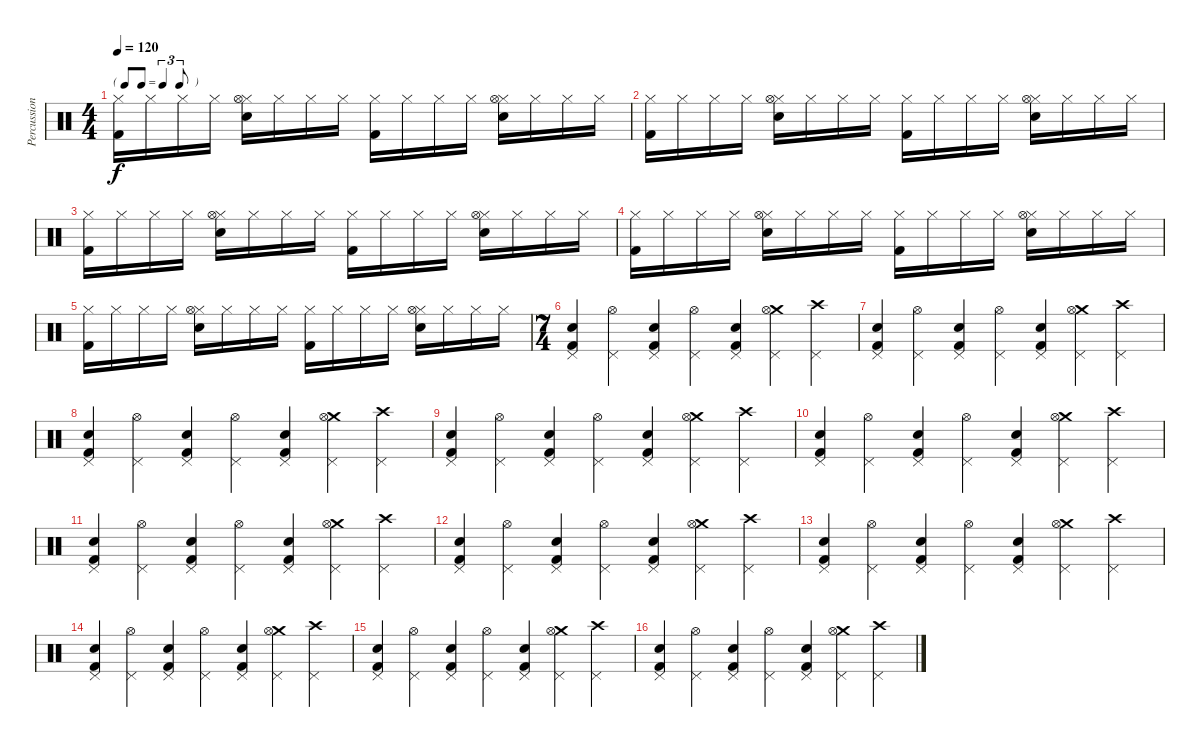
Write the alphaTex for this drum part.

\track ("Percussions" "Percussion") {instrument percussion}
\staff {score}
\articulation defaults
\ts (4 4)
\tf triplet8th
\tempo 120
\clef neutral
\ks c
("Hi-Hat (closed)" "Kick (hit) 2").16{dy f} "Hi-Hat (closed)".16 "Hi-Hat (closed)".16 "Hi-Hat (closed)".16 ("Snare (hit) 2" "Hi-Hat (closed)" "Hi-Hat (open)").16 "Hi-Hat (closed)".16 "Hi-Hat (closed)".16 "Hi-Hat (closed)".16 ("Hi-Hat (closed)" "Kick (hit) 2").16 "Hi-Hat (closed)".16 "Hi-Hat (closed)".16 "Hi-Hat (closed)".16 ("Snare (hit) 2" "Hi-Hat (closed)" "Hi-Hat (open)").16 "Hi-Hat (closed)".16 "Hi-Hat (closed)".16 "Hi-Hat (closed)".16 |
("Hi-Hat (closed)" "Kick (hit) 2").16 "Hi-Hat (closed)".16 "Hi-Hat (closed)".16 "Hi-Hat (closed)".16 ("Snare (hit) 2" "Hi-Hat (closed)" "Hi-Hat (open)").16 "Hi-Hat (closed)".16 "Hi-Hat (closed)".16 "Hi-Hat (closed)".16 ("Hi-Hat (closed)" "Kick (hit) 2").16 "Hi-Hat (closed)".16 "Hi-Hat (closed)".16 "Hi-Hat (closed)".16 ("Snare (hit) 2" "Hi-Hat (closed)" "Hi-Hat (open)").16 "Hi-Hat (closed)".16 "Hi-Hat (closed)".16 "Hi-Hat (closed)".16 |
("Hi-Hat (closed)" "Kick (hit) 2").16 "Hi-Hat (closed)".16 "Hi-Hat (closed)".16 "Hi-Hat (closed)".16 ("Snare (hit) 2" "Hi-Hat (closed)" "Hi-Hat (open)").16 "Hi-Hat (closed)".16 "Hi-Hat (closed)".16 "Hi-Hat (closed)".16 ("Hi-Hat (closed)" "Kick (hit) 2").16 "Hi-Hat (closed)".16 "Hi-Hat (closed)".16 "Hi-Hat (closed)".16 ("Snare (hit) 2" "Hi-Hat (closed)" "Hi-Hat (open)").16 "Hi-Hat (closed)".16 "Hi-Hat (closed)".16 "Hi-Hat (closed)".16 |
("Hi-Hat (closed)" "Kick (hit) 2").16 "Hi-Hat (closed)".16 "Hi-Hat (closed)".16 "Hi-Hat (closed)".16 ("Snare (hit) 2" "Hi-Hat (closed)" "Hi-Hat (open)").16 "Hi-Hat (closed)".16 "Hi-Hat (closed)".16 "Hi-Hat (closed)".16 ("Hi-Hat (closed)" "Kick (hit) 2").16 "Hi-Hat (closed)".16 "Hi-Hat (closed)".16 "Hi-Hat (closed)".16 ("Snare (hit) 2" "Hi-Hat (closed)" "Hi-Hat (open)").16 "Hi-Hat (closed)".16 "Hi-Hat (closed)".16 "Hi-Hat (closed)".16 |
("Hi-Hat (closed)" "Kick (hit) 2").16 "Hi-Hat (closed)".16 "Hi-Hat (closed)".16 "Hi-Hat (closed)".16 ("Snare (hit) 2" "Hi-Hat (closed)" "Hi-Hat (open)").16 "Hi-Hat (closed)".16 "Hi-Hat (closed)".16 "Hi-Hat (closed)".16 ("Hi-Hat (closed)" "Kick (hit) 2").16 "Hi-Hat (closed)".16 "Hi-Hat (closed)".16 "Hi-Hat (closed)".16 ("Snare (hit) 2" "Hi-Hat (closed)" "Hi-Hat (open)").16 "Hi-Hat (closed)".16 "Hi-Hat (closed)".16 "Hi-Hat (closed)".16 |
\ts (7 4)
("Kick (hit) 2" "Snare (hit) 2" "Pedal Hi-Hat (hit)").4 ("Hi-Hat (open)" "Pedal Hi-Hat (hit)").4 ("Kick (hit) 2" "Snare (hit) 2" "Pedal Hi-Hat (hit)").4 ("Hi-Hat (open)" "Pedal Hi-Hat (hit)").4 ("Kick (hit) 2" "Snare (hit) 2" "Pedal Hi-Hat (hit)").4 ("Crash medium (hit)" "Hi-Hat (open)" "Pedal Hi-Hat (hit)").4 ("Crash high (hit)" "Pedal Hi-Hat (hit)").4 |
("Kick (hit) 2" "Snare (hit) 2" "Pedal Hi-Hat (hit)").4 ("Hi-Hat (open)" "Pedal Hi-Hat (hit)").4 ("Kick (hit) 2" "Snare (hit) 2" "Pedal Hi-Hat (hit)").4 ("Hi-Hat (open)" "Pedal Hi-Hat (hit)").4 ("Kick (hit) 2" "Snare (hit) 2" "Pedal Hi-Hat (hit)").4 ("Crash medium (hit)" "Hi-Hat (open)" "Pedal Hi-Hat (hit)").4 ("Crash high (hit)" "Pedal Hi-Hat (hit)").4 |
("Kick (hit) 2" "Snare (hit) 2" "Pedal Hi-Hat (hit)").4 ("Hi-Hat (open)" "Pedal Hi-Hat (hit)").4 ("Kick (hit) 2" "Snare (hit) 2" "Pedal Hi-Hat (hit)").4 ("Hi-Hat (open)" "Pedal Hi-Hat (hit)").4 ("Kick (hit) 2" "Snare (hit) 2" "Pedal Hi-Hat (hit)").4 ("Crash medium (hit)" "Hi-Hat (open)" "Pedal Hi-Hat (hit)").4 ("Crash high (hit)" "Pedal Hi-Hat (hit)").4 |
("Kick (hit) 2" "Snare (hit) 2" "Pedal Hi-Hat (hit)").4 ("Hi-Hat (open)" "Pedal Hi-Hat (hit)").4 ("Kick (hit) 2" "Snare (hit) 2" "Pedal Hi-Hat (hit)").4 ("Hi-Hat (open)" "Pedal Hi-Hat (hit)").4 ("Kick (hit) 2" "Snare (hit) 2" "Pedal Hi-Hat (hit)").4 ("Crash medium (hit)" "Hi-Hat (open)" "Pedal Hi-Hat (hit)").4 ("Crash high (hit)" "Pedal Hi-Hat (hit)").4 |
("Kick (hit) 2" "Snare (hit) 2" "Pedal Hi-Hat (hit)").4 ("Hi-Hat (open)" "Pedal Hi-Hat (hit)").4 ("Kick (hit) 2" "Snare (hit) 2" "Pedal Hi-Hat (hit)").4 ("Hi-Hat (open)" "Pedal Hi-Hat (hit)").4 ("Kick (hit) 2" "Snare (hit) 2" "Pedal Hi-Hat (hit)").4 ("Crash medium (hit)" "Hi-Hat (open)" "Pedal Hi-Hat (hit)").4 ("Crash high (hit)" "Pedal Hi-Hat (hit)").4 |
("Kick (hit) 2" "Snare (hit) 2" "Pedal Hi-Hat (hit)").4 ("Hi-Hat (open)" "Pedal Hi-Hat (hit)").4 ("Kick (hit) 2" "Snare (hit) 2" "Pedal Hi-Hat (hit)").4 ("Hi-Hat (open)" "Pedal Hi-Hat (hit)").4 ("Kick (hit) 2" "Snare (hit) 2" "Pedal Hi-Hat (hit)").4 ("Crash medium (hit)" "Hi-Hat (open)" "Pedal Hi-Hat (hit)").4 ("Crash high (hit)" "Pedal Hi-Hat (hit)").4 |
("Kick (hit) 2" "Snare (hit) 2" "Pedal Hi-Hat (hit)").4 ("Hi-Hat (open)" "Pedal Hi-Hat (hit)").4 ("Kick (hit) 2" "Snare (hit) 2" "Pedal Hi-Hat (hit)").4 ("Hi-Hat (open)" "Pedal Hi-Hat (hit)").4 ("Kick (hit) 2" "Snare (hit) 2" "Pedal Hi-Hat (hit)").4 ("Crash medium (hit)" "Hi-Hat (open)" "Pedal Hi-Hat (hit)").4 ("Crash high (hit)" "Pedal Hi-Hat (hit)").4 |
("Kick (hit) 2" "Snare (hit) 2" "Pedal Hi-Hat (hit)").4 ("Hi-Hat (open)" "Pedal Hi-Hat (hit)").4 ("Kick (hit) 2" "Snare (hit) 2" "Pedal Hi-Hat (hit)").4 ("Hi-Hat (open)" "Pedal Hi-Hat (hit)").4 ("Kick (hit) 2" "Snare (hit) 2" "Pedal Hi-Hat (hit)").4 ("Crash medium (hit)" "Hi-Hat (open)" "Pedal Hi-Hat (hit)").4 ("Crash high (hit)" "Pedal Hi-Hat (hit)").4 |
("Kick (hit) 2" "Snare (hit) 2" "Pedal Hi-Hat (hit)").4 ("Hi-Hat (open)" "Pedal Hi-Hat (hit)").4 ("Kick (hit) 2" "Snare (hit) 2" "Pedal Hi-Hat (hit)").4 ("Hi-Hat (open)" "Pedal Hi-Hat (hit)").4 ("Kick (hit) 2" "Snare (hit) 2" "Pedal Hi-Hat (hit)").4 ("Crash medium (hit)" "Hi-Hat (open)" "Pedal Hi-Hat (hit)").4 ("Crash high (hit)" "Pedal Hi-Hat (hit)").4 |
("Kick (hit) 2" "Snare (hit) 2" "Pedal Hi-Hat (hit)").4 ("Hi-Hat (open)" "Pedal Hi-Hat (hit)").4 ("Kick (hit) 2" "Snare (hit) 2" "Pedal Hi-Hat (hit)").4 ("Hi-Hat (open)" "Pedal Hi-Hat (hit)").4 ("Kick (hit) 2" "Snare (hit) 2" "Pedal Hi-Hat (hit)").4 ("Crash medium (hit)" "Hi-Hat (open)" "Pedal Hi-Hat (hit)").4 ("Crash high (hit)" "Pedal Hi-Hat (hit)").4 |
("Kick (hit) 2" "Snare (hit) 2" "Pedal Hi-Hat (hit)").4 ("Hi-Hat (open)" "Pedal Hi-Hat (hit)").4 ("Kick (hit) 2" "Snare (hit) 2" "Pedal Hi-Hat (hit)").4 ("Hi-Hat (open)" "Pedal Hi-Hat (hit)").4 ("Kick (hit) 2" "Snare (hit) 2" "Pedal Hi-Hat (hit)").4 ("Crash medium (hit)" "Hi-Hat (open)" "Pedal Hi-Hat (hit)").4 ("Crash high (hit)" "Pedal Hi-Hat (hit)").4
